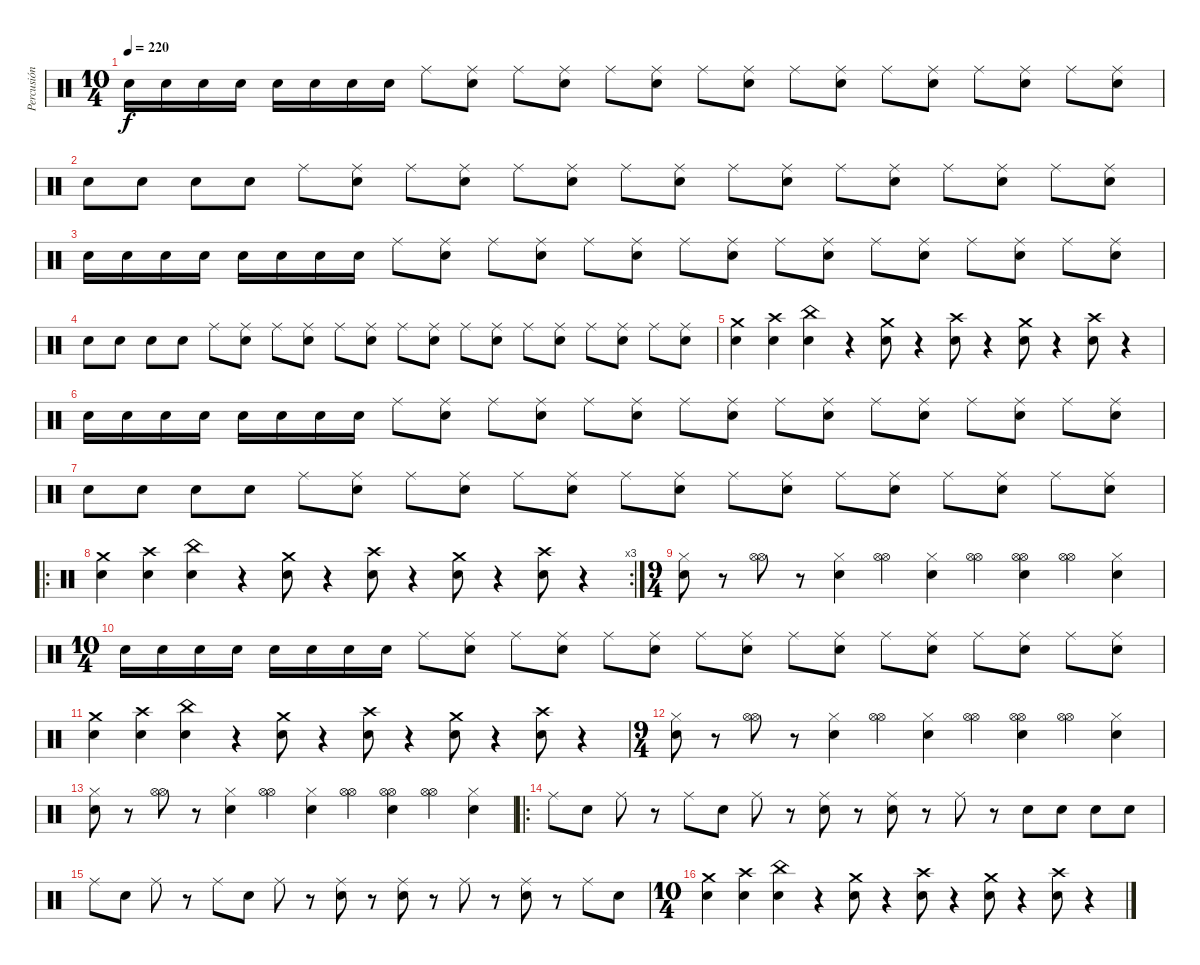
\track ("Percusión - Compa" "Percusión ") {instrument percussion}
\staff {score}
\articulation defaults
\ts (10 4)
\tempo 220
\clef neutral
\ks c "Electric Snare (hit)".16{dy f} "Electric Snare (hit)".16 "Electric Snare (hit)".16 "Electric Snare (hit)".16 "Electric Snare (hit)".16 "Electric Snare (hit)".16 "Electric Snare (hit)".16 "Electric Snare (hit)".16 "Ride (middle)".8
("Ride (middle)" "Electric Snare (hit)").8 "Ride (middle)".8 ("Ride (middle)" "Electric Snare (hit)").8 "Ride (middle)".8 ("Ride (middle)" "Electric Snare (hit)").8 "Ride (middle)".8 ("Ride (middle)" "Electric Snare (hit)").8 "Ride (middle)".8 ("Ride (middle)" "Electric Snare (hit)").8 "Ride (middle)".8 ("Ride (middle)" "Electric Snare (hit)").8 "Ride (middle)".8 ("Ride (middle)" "Electric Snare (hit)").8 "Ride (middle)".8 ("Ride (middle)" "Electric Snare (hit)").8 |
"Electric Snare (hit)".8 "Electric Snare (hit)".8 "Electric Snare (hit)".8 "Electric Snare (hit)".8 "Ride (middle)".8 ("Ride (middle)" "Electric Snare (hit)").8 "Ride (middle)".8 ("Ride (middle)" "Electric Snare (hit)").8 "Ride (middle)".8 ("Ride (middle)" "Electric Snare (hit)").8 "Ride (middle)".8 ("Ride (middle)" "Electric Snare (hit)").8 "Ride (middle)".8 ("Ride (middle)" "Electric Snare (hit)").8 "Ride (middle)".8 ("Ride (middle)" "Electric Snare (hit)").8 "Ride (middle)".8 ("Ride (middle)" "Electric Snare (hit)").8 "Ride (middle)".8 ("Ride (middle)" "Electric Snare (hit)").8 |
"Electric Snare (hit)".16 "Electric Snare (hit)".16 "Electric Snare (hit)".16 "Electric Snare (hit)".16 "Electric Snare (hit)".16 "Electric Snare (hit)".16 "Electric Snare (hit)".16 "Electric Snare (hit)".16 "Ride (middle)".8 ("Ride (middle)" "Electric Snare (hit)").8 "Ride (middle)".8 ("Ride (middle)" "Electric Snare (hit)").8 "Ride (middle)".8 ("Ride (middle)" "Electric Snare (hit)").8 "Ride (middle)".8 ("Ride (middle)" "Electric Snare (hit)").8 "Ride (middle)".8 ("Ride (middle)" "Electric Snare (hit)").8 "Ride (middle)".8 ("Ride (middle)" "Electric Snare (hit)").8 "Ride (middle)".8 ("Ride (middle)" "Electric Snare (hit)").8 "Ride (middle)".8 ("Ride (middle)" "Electric Snare (hit)").8 |
"Electric Snare (hit)".8 "Electric Snare (hit)".8 "Electric Snare (hit)".8 "Electric Snare (hit)".8 "Ride (middle)".8 ("Ride (middle)" "Electric Snare (hit)").8 "Ride (middle)".8 ("Ride (middle)" "Electric Snare (hit)").8 "Ride (middle)".8 ("Ride (middle)" "Electric Snare (hit)").8 "Ride (middle)".8 ("Ride (middle)" "Electric Snare (hit)").8 "Ride (middle)".8 ("Ride (middle)" "Electric Snare (hit)").8 "Ride (middle)".8 ("Ride (middle)" "Electric Snare (hit)").8 "Ride (middle)".8 ("Ride (middle)" "Electric Snare (hit)").8 "Ride (middle)".8 ("Ride (middle)" "Electric Snare (hit)").8 |
("Crash medium (hit)" "Electric Snare (hit)").4 ("Crash high (hit)" "Electric Snare (hit)").4 ("China (hit)" "Electric Snare (hit)").4 r.4 ("Crash medium (hit)" "Electric Snare (hit)").8 r.4 ("Crash high (hit)" "Electric Snare (hit)").8 r.4 ("Crash medium (hit)" "Electric Snare (hit)").8 r.4 ("Crash high (hit)" "Electric Snare (hit)").8 r.4 |
"Electric Snare (hit)".16 "Electric Snare (hit)".16 "Electric Snare (hit)".16 "Electric Snare (hit)".16 "Electric Snare (hit)".16 "Electric Snare (hit)".16 "Electric Snare (hit)".16 "Electric Snare (hit)".16 "Ride (middle)".8 ("Ride (middle)" "Electric Snare (hit)").8 "Ride (middle)".8 ("Ride (middle)" "Electric Snare (hit)").8 "Ride (middle)".8 ("Ride (middle)" "Electric Snare (hit)").8 "Ride (middle)".8 ("Ride (middle)" "Electric Snare (hit)").8 "Ride (middle)".8 ("Ride (middle)" "Electric Snare (hit)").8 "Ride (middle)".8 ("Ride (middle)" "Electric Snare (hit)").8 "Ride (middle)".8 ("Ride (middle)" "Electric Snare (hit)").8 "Ride (middle)".8 ("Ride (middle)" "Electric Snare (hit)").8 |
"Electric Snare (hit)".8 "Electric Snare (hit)".8 "Electric Snare (hit)".8 "Electric Snare (hit)".8 "Ride (middle)".8 ("Ride (middle)" "Electric Snare (hit)").8 "Ride (middle)".8 ("Ride (middle)" "Electric Snare (hit)").8 "Ride (middle)".8 ("Ride (middle)" "Electric Snare (hit)").8 "Ride (middle)".8 ("Ride (middle)" "Electric Snare (hit)").8 "Ride (middle)".8 ("Ride (middle)" "Electric Snare (hit)").8 "Ride (middle)".8 ("Ride (middle)" "Electric Snare (hit)").8 "Ride (middle)".8 ("Ride (middle)" "Electric Snare (hit)").8 "Ride (middle)".8 ("Ride (middle)" "Electric Snare (hit)").8 |
\ro
\rc 3
("Crash medium (hit)" "Electric Snare (hit)").4 ("Crash high (hit)" "Electric Snare (hit)").4 ("China (hit)" "Electric Snare (hit)").4 r.4 ("Crash medium (hit)" "Electric Snare (hit)").8 r.4 ("Crash high (hit)" "Electric Snare (hit)").8 r.4 ("Crash medium (hit)" "Electric Snare (hit)").8 r.4 ("Crash high (hit)" "Electric Snare (hit)").8 r.4 |
\ts (9 4)
("Hi-Hat (closed)" "Electric Snare (hit)").8 r.8 ("Hi-Hat (open)" "Hi-Hat (open)").8 r.8 ("Hi-Hat (closed)" "Electric Snare (hit)").4 ("Hi-Hat (open)" "Hi-Hat (open)").4 ("Hi-Hat (closed)" "Electric Snare (hit)").4 ("Hi-Hat (open)" "Hi-Hat (open)").4 ("Hi-Hat (open)" "Hi-Hat (open)" "Electric Snare (hit)").4 ("Hi-Hat (open)" "Hi-Hat (open)").4 ("Hi-Hat (closed)" "Electric Snare (hit)").4 |
\ts (10 4)
"Electric Snare (hit)".16 "Electric Snare (hit)".16 "Electric Snare (hit)".16 "Electric Snare (hit)".16 "Electric Snare (hit)".16 "Electric Snare (hit)".16 "Electric Snare (hit)".16 "Electric Snare (hit)".16 "Ride (middle)".8 ("Ride (middle)" "Electric Snare (hit)").8 "Ride (middle)".8 ("Ride (middle)" "Electric Snare (hit)").8 "Ride (middle)".8 ("Ride (middle)" "Electric Snare (hit)").8 "Ride (middle)".8 ("Ride (middle)" "Electric Snare (hit)").8 "Ride (middle)".8 ("Ride (middle)" "Electric Snare (hit)").8 "Ride (middle)".8 ("Ride (middle)" "Electric Snare (hit)").8 "Ride (middle)".8 ("Ride (middle)" "Electric Snare (hit)").8 "Ride (middle)".8 ("Ride (middle)" "Electric Snare (hit)").8 |
("Crash medium (hit)" "Electric Snare (hit)").4 ("Crash high (hit)" "Electric Snare (hit)").4 ("China (hit)" "Electric Snare (hit)").4 r.4 ("Crash medium (hit)" "Electric Snare (hit)").8 r.4 ("Crash high (hit)" "Electric Snare (hit)").8 r.4 ("Crash medium (hit)" "Electric Snare (hit)").8 r.4 ("Crash high (hit)" "Electric Snare (hit)").8 r.4 |
\ts (9 4)
("Hi-Hat (closed)" "Electric Snare (hit)").8 r.8 ("Hi-Hat (open)" "Hi-Hat (open)").8 r.8 ("Hi-Hat (closed)" "Electric Snare (hit)").4 ("Hi-Hat (open)" "Hi-Hat (open)").4 ("Hi-Hat (closed)" "Electric Snare (hit)").4 ("Hi-Hat (open)" "Hi-Hat (open)").4 ("Hi-Hat (open)" "Hi-Hat (open)" "Electric Snare (hit)").4 ("Hi-Hat (open)" "Hi-Hat (open)").4 ("Hi-Hat (closed)" "Electric Snare (hit)").4 |
("Hi-Hat (closed)" "Electric Snare (hit)").8 r.8 ("Hi-Hat (open)" "Hi-Hat (open)").8 r.8 ("Hi-Hat (closed)" "Electric Snare (hit)").4 ("Hi-Hat (open)" "Hi-Hat (open)").4 ("Hi-Hat (closed)" "Electric Snare (hit)").4 ("Hi-Hat (open)" "Hi-Hat (open)").4 ("Hi-Hat (open)" "Hi-Hat (open)" "Electric Snare (hit)").4 ("Hi-Hat (open)" "Hi-Hat (open)").4 ("Hi-Hat (closed)" "Electric Snare (hit)").4 |
\ro "Ride (middle)".8 "Electric Snare (hit)".8 "Ride (middle)".8
r.8 "Ride (middle)".8 "Electric Snare (hit)".8 "Ride (middle)".8 r.8 ("Ride (middle)" "Electric Snare (hit)").8 r.8 ("Ride (middle)" "Electric Snare (hit)").8 r.8 "Ride (middle)".8 r.8 "Electric Snare (hit)".8 "Electric Snare (hit)".8 "Electric Snare (hit)".8 "Electric Snare (hit)".8 |
"Ride (middle)".8 "Electric Snare (hit)".8 "Ride (middle)".8 r.8 "Ride (middle)".8 "Electric Snare (hit)".8 "Ride (middle)".8 r.8 ("Ride (middle)" "Electric Snare (hit)").8 r.8 ("Ride (middle)" "Electric Snare (hit)").8 r.8 "Ride (middle)".8 r.8 ("Ride (middle)" "Electric Snare (hit)").8 r.8 "Ride (middle)".8 "Electric Snare (hit)".8 |
\ts (10 4)
("Crash medium (hit)" "Electric Snare (hit)").4 ("Crash high (hit)" "Electric Snare (hit)").4 ("China (hit)" "Electric Snare (hit)").4 r.4 ("Crash medium (hit)" "Electric Snare (hit)").8 r.4 ("Crash high (hit)" "Electric Snare (hit)").8 r.4 ("Crash medium (hit)" "Electric Snare (hit)").8 r.4 ("Crash high (hit)" "Electric Snare (hit)").8 r.4
